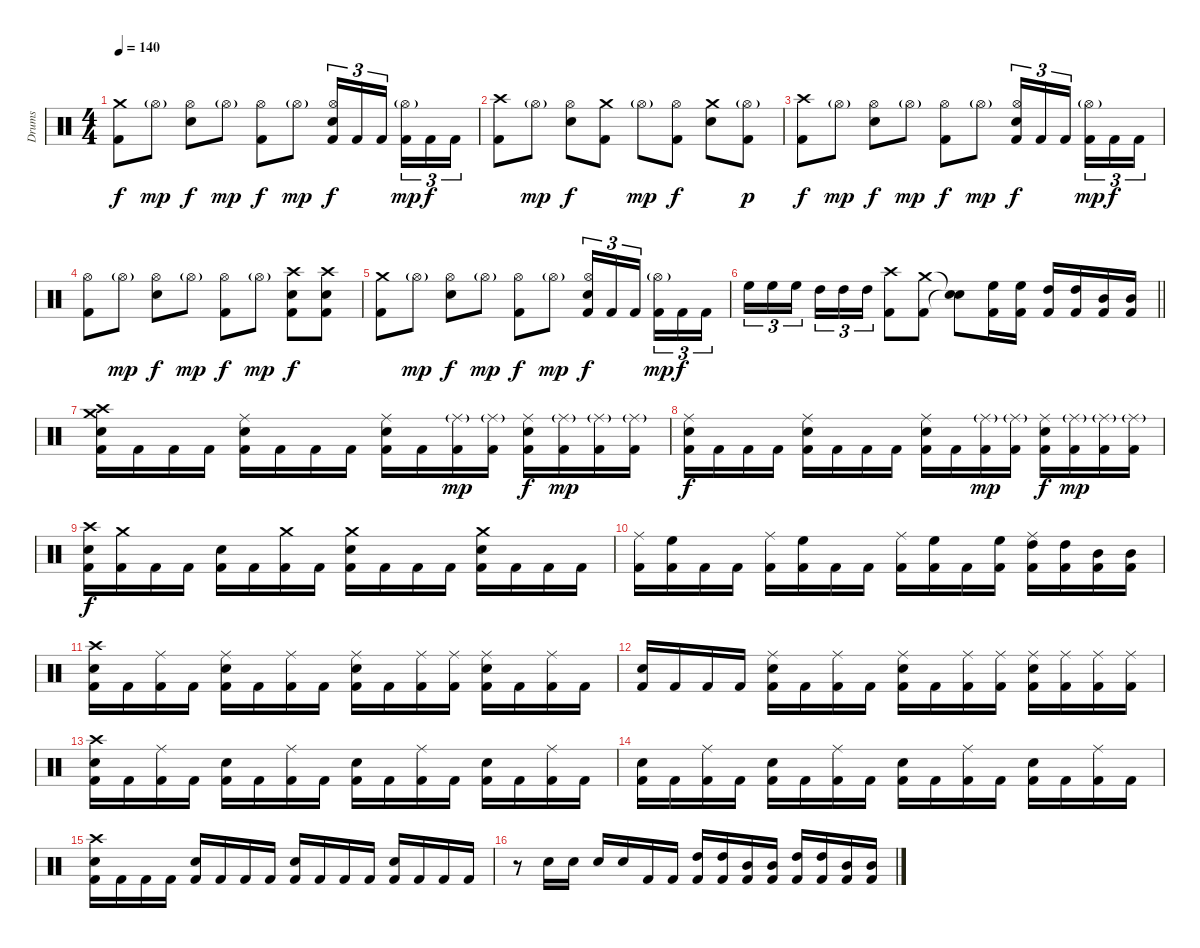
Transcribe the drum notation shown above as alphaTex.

\track ("Drums" "Drums") {instrument percussion}
\staff {score}
\articulation defaults
\ts (4 4)
\tempo 140
\clef neutral
\ks c
("Crash medium (hit)" "Kick (hit) 2").8{dy f} "Hi-Hat (open)"{g}.8{dy mp} ("Hi-Hat (open)" "Electric Snare (hit)").8{dy f} "Hi-Hat (open)"{g}.8{dy mp} ("Hi-Hat (open)" "Kick (hit) 2").8{dy f} "Hi-Hat (open)"{g}.8{dy mp} ("Hi-Hat (open)" "Electric Snare (hit)" "Kick (hit) 2").16{tu (3 2) dy f} "Kick (hit) 2".16{tu (3 2)} "Kick (hit) 2".16{tu (3 2)} ("Hi-Hat (open)"{g} "Kick (hit) 2").16{tu (3 2) dy mp} "Kick (hit) 2".16{tu (3 2) dy f} "Kick (hit) 2".16{tu (3 2)} |
("Crash high (hit)" "Kick (hit) 2").8 "Hi-Hat (open)"{g}.8{dy mp} ("Hi-Hat (open)" "Electric Snare (hit)").8{dy f} ("Crash medium (hit)" "Kick (hit) 2").8 "Hi-Hat (open)"{g}.8{dy mp} ("Hi-Hat (open)" "Kick (hit) 2").8{dy f} ("Crash medium (hit)" "Electric Snare (hit)").8 ("Hi-Hat (open)"{g} "Kick (hit) 2").8{dy p} |
("Crash high (hit)" "Kick (hit) 2").8{dy f} "Hi-Hat (open)"{g}.8{dy mp} ("Hi-Hat (open)" "Electric Snare (hit)").8{dy f} "Hi-Hat (open)"{g}.8{dy mp} ("Hi-Hat (open)" "Kick (hit) 2").8{dy f} "Hi-Hat (open)"{g}.8{dy mp} ("Hi-Hat (open)" "Electric Snare (hit)" "Kick (hit) 2").16{tu (3 2) dy f} "Kick (hit) 2".16{tu (3 2)} "Kick (hit) 2".16{tu (3 2)} ("Hi-Hat (open)"{g} "Kick (hit) 2").16{tu (3 2) dy mp} "Kick (hit) 2".16{tu (3 2) dy f} "Kick (hit) 2".16{tu (3 2)} |
("Hi-Hat (open)" "Kick (hit) 2").8 "Hi-Hat (open)"{g}.8{dy mp} ("Hi-Hat (open)" "Electric Snare (hit)").8{dy f} "Hi-Hat (open)"{g}.8{dy mp} ("Hi-Hat (open)" "Kick (hit) 2").8{dy f} "Hi-Hat (open)"{g}.8{dy mp} ("Crash high (hit)" "Electric Snare (hit)" "Kick (hit) 2").8{dy f} ("Crash high (hit)" "Electric Snare (hit)" "Kick (hit) 2").8 |
("Crash medium (hit)" "Kick (hit) 2").8 "Hi-Hat (open)"{g}.8{dy mp} ("Hi-Hat (open)" "Electric Snare (hit)").8{dy f} "Hi-Hat (open)"{g}.8{dy mp} ("Hi-Hat (open)" "Kick (hit) 2").8{dy f} "Hi-Hat (open)"{g}.8{dy mp} ("Hi-Hat (open)" "Electric Snare (hit)" "Kick (hit) 2").16{tu (3 2) dy f} "Kick (hit) 2".16{tu (3 2)} "Kick (hit) 2".16{tu (3 2)} ("Hi-Hat (open)"{g} "Kick (hit) 2").16{tu (3 2) dy mp} "Kick (hit) 2".16{tu (3 2) dy f} "Kick (hit) 2".16{tu (3 2)} |
\barLineRight lightlight "High Floor Tom (hit)".16{tu (3 2)} "High Floor Tom (hit)".16{tu (3 2)} "High Floor Tom (hit)".16{tu (3 2)} "High Tom (hit)".16{tu (3 2)} "High Tom (hit)".16{tu (3 2)} "High Tom (hit)".16{tu (3 2)}
("Crash high (hit)" "Kick (hit) 2").8 ("Crash medium (hit)" "Kick (hit) 2").8 ("Snare (hit)"{t} "Snare (hit)"{t}).8 ("High Floor Tom (hit)" "Kick (hit) 2").16 ("High Floor Tom (hit)" "Kick (hit) 2").16 ("High Tom (hit)" "Kick (hit) 2").16 ("High Tom (hit)" "Kick (hit) 2").16 ("Mid Tom (hit)" "Kick (hit) 2").16 ("Mid Tom (hit)" "Kick (hit) 2").16 |
("Crash high (hit)" "Crash medium (hit)" "Electric Snare (hit)" "Kick (hit) 2").16 "Kick (hit) 2".16 "Kick (hit) 2".16 "Kick (hit) 2".16 ("Ride (middle)" "Electric Snare (hit)" "Kick (hit) 2").16 "Kick (hit) 2".16 "Kick (hit) 2".16 "Kick (hit) 2".16 ("Ride (middle)" "Electric Snare (hit)" "Kick (hit) 2").16 "Kick (hit) 2".16 ("Ride (middle)"{g} "Kick (hit) 2").16{dy mp} ("Ride (middle)"{g} "Kick (hit) 2").16 ("Ride (middle)" "Electric Snare (hit)" "Kick (hit) 2").16{dy f} ("Ride (middle)"{g} "Kick (hit) 2").16{dy mp} ("Ride (middle)"{g} "Kick (hit) 2").16 ("Ride (middle)"{g} "Kick (hit) 2").16 |
("Ride (middle)" "Electric Snare (hit)" "Kick (hit) 2").16{dy f} "Kick (hit) 2".16 "Kick (hit) 2".16 "Kick (hit) 2".16 ("Ride (middle)" "Electric Snare (hit)" "Kick (hit) 2").16 "Kick (hit) 2".16 "Kick (hit) 2".16 "Kick (hit) 2".16 ("Ride (middle)" "Electric Snare (hit)" "Kick (hit) 2").16 "Kick (hit) 2".16 ("Ride (middle)"{g} "Kick (hit) 2").16{dy mp} ("Ride (middle)"{g} "Kick (hit) 2").16 ("Ride (middle)" "Electric Snare (hit)" "Kick (hit) 2").16{dy f} ("Ride (middle)"{g} "Kick (hit) 2").16{dy mp} ("Ride (middle)"{g} "Kick (hit) 2").16 ("Ride (middle)"{g} "Kick (hit) 2").16 |
("Crash high (hit)" "Electric Snare (hit)" "Kick (hit) 2").16{dy f} ("Crash medium (hit)" "Kick (hit) 2").16 "Kick (hit) 2".16 "Kick (hit) 2".16 ("Electric Snare (hit)" "Kick (hit) 2").16 "Kick (hit) 2".16 ("Crash medium (hit)" "Kick (hit) 2").16 "Kick (hit) 2".16 ("Crash medium (hit)" "Electric Snare (hit)" "Kick (hit) 2").16 "Kick (hit) 2".16 "Kick (hit) 2".16 "Kick (hit) 2".16 ("Crash medium (hit)" "Electric Snare (hit)" "Kick (hit) 2").16 "Kick (hit) 2".16 "Kick (hit) 2".16 "Kick (hit) 2".16 |
("Ride (middle)" "Kick (hit) 2").16 ("High Floor Tom (hit)" "Kick (hit) 2").16 "Kick (hit) 2".16 "Kick (hit) 2".16 ("Ride (middle)" "Kick (hit) 2").16 ("High Floor Tom (hit)" "Kick (hit) 2").16 "Kick (hit) 2".16 "Kick (hit) 2".16 ("Ride (middle)" "Kick (hit) 2").16 ("High Floor Tom (hit)" "Kick (hit) 2").16 "Kick (hit) 2".16 ("High Floor Tom (hit)" "Kick (hit) 2").16 ("Ride (middle)" "High Tom (hit)" "Kick (hit) 2").16 ("High Tom (hit)" "Kick (hit) 2").16 ("Mid Tom (hit)" "Kick (hit) 2").16 ("Mid Tom (hit)" "Kick (hit) 2").16 |
("Crash high (hit)" "Snare (hit) 2" "Kick (hit) 2").16 "Kick (hit) 2".16 ("Ride (middle)" "Kick (hit) 2").16 "Kick (hit) 2".16 ("Ride (middle)" "Snare (hit) 2" "Kick (hit) 2").16 "Kick (hit) 2".16 ("Ride (middle)" "Kick (hit) 2").16 "Kick (hit) 2".16 ("Ride (middle)" "Snare (hit) 2" "Kick (hit) 2").16 "Kick (hit) 2".16 ("Ride (middle)" "Kick (hit) 2").16 ("Ride (middle)" "Kick (hit) 2").16 ("Ride (middle)" "Snare (hit) 2" "Kick (hit) 2").16 "Kick (hit) 2".16 ("Ride (middle)" "Kick (hit) 2").16 "Kick (hit) 2".16 |
("Snare (hit) 2" "Kick (hit) 2").16 "Kick (hit) 2".16 "Kick (hit) 2".16 "Kick (hit) 2".16 ("Ride (middle)" "Snare (hit) 2" "Kick (hit) 2").16 "Kick (hit) 2".16 ("Ride (middle)" "Kick (hit) 2").16 "Kick (hit) 2".16 ("Ride (middle)" "Snare (hit) 2" "Kick (hit) 2").16 "Kick (hit) 2".16 ("Ride (middle)" "Kick (hit) 2").16 ("Ride (middle)" "Kick (hit) 2").16 ("Ride (middle)" "Snare (hit) 2" "Kick (hit) 2").16 ("Ride (middle)" "Kick (hit) 2").16 ("Ride (middle)" "Kick (hit) 2").16 ("Ride (middle)" "Kick (hit) 2").16 |
("Crash high (hit)" "Snare (hit) 2" "Kick (hit) 2").16 "Kick (hit) 2".16 ("Ride (middle)" "Kick (hit) 2").16 "Kick (hit) 2".16 ("Snare (hit) 2" "Kick (hit) 2").16 "Kick (hit) 2".16 ("Ride (middle)" "Kick (hit) 2").16 "Kick (hit) 2".16 ("Snare (hit) 2" "Kick (hit) 2").16 "Kick (hit) 2".16 ("Ride (middle)" "Kick (hit) 2").16 "Kick (hit) 2".16 ("Snare (hit) 2" "Kick (hit) 2").16 "Kick (hit) 2".16 ("Ride (middle)" "Kick (hit) 2").16 "Kick (hit) 2".16 |
("Snare (hit) 2" "Kick (hit) 2").16 "Kick (hit) 2".16 ("Ride (middle)" "Kick (hit) 2").16 "Kick (hit) 2".16 ("Snare (hit) 2" "Kick (hit) 2").16 "Kick (hit) 2".16 ("Ride (middle)" "Kick (hit) 2").16 "Kick (hit) 2".16 ("Snare (hit) 2" "Kick (hit) 2").16 "Kick (hit) 2".16 ("Ride (middle)" "Kick (hit) 2").16 "Kick (hit) 2".16 ("Snare (hit) 2" "Kick (hit) 2").16 "Kick (hit) 2".16 ("Ride (middle)" "Kick (hit) 2").16 "Kick (hit) 2".16 |
("Crash high (hit)" "Electric Snare (hit)" "Kick (hit) 2").16 "Kick (hit) 2".16 "Kick (hit) 2".16 "Kick (hit) 2".16 ("Electric Snare (hit)" "Kick (hit) 2").16 "Kick (hit) 2".16 "Kick (hit) 2".16 "Kick (hit) 2".16 ("Electric Snare (hit)" "Kick (hit) 2").16 "Kick (hit) 2".16 "Kick (hit) 2".16 "Kick (hit) 2".16 ("Electric Snare (hit)" "Kick (hit) 2").16 "Kick (hit) 2".16 "Kick (hit) 2".16 "Kick (hit) 2".16 |
r.8 "Snare (hit) 2".16 "Snare (hit) 2".16 "Snare (hit) 2".16 "Snare (hit) 2".16 "Kick (hit) 2".16 "Kick (hit) 2".16 ("High Tom (hit)" "Kick (hit) 2").16 ("High Tom (hit)" "Kick (hit) 2").16 ("Mid Tom (hit)" "Kick (hit) 2").16 ("Mid Tom (hit)" "Kick (hit) 2").16 ("High Tom (hit)" "Kick (hit) 2").16 ("High Tom (hit)" "Kick (hit) 2").16 ("Mid Tom (hit)" "Kick (hit) 2").16 ("Mid Tom (hit)" "Kick (hit) 2").16
